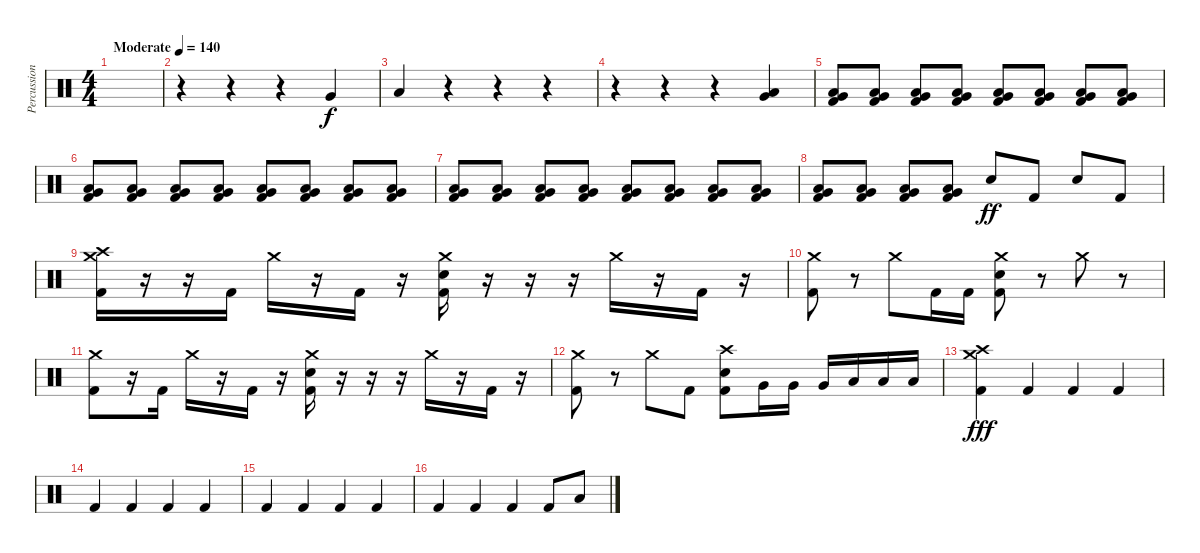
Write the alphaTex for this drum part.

\track ("Percussion" "Percussion") {instrument percussion}
\staff {score}
\articulation defaults
\ts (4 4)
\tempo (140 "Moderate")
\clef neutral
\ks c
|
r.4 r.4 r.4 "Very Low Tom (hit)".4 |
"Low Floor Tom (hit)".4 r.4 r.4 r.4 |
r.4 r.4 r.4 ("Low Floor Tom (hit)" "Very Low Tom (hit)").4 |
("Low Floor Tom (hit)" "Very Low Tom (hit)" "Kick (hit) 2").8{dy f} ("Low Floor Tom (hit)" "Very Low Tom (hit)" "Kick (hit) 2").8 ("Low Floor Tom (hit)" "Very Low Tom (hit)" "Kick (hit) 2").8 ("Low Floor Tom (hit)" "Very Low Tom (hit)" "Kick (hit) 2").8 ("Low Floor Tom (hit)" "Very Low Tom (hit)" "Kick (hit) 2").8 ("Low Floor Tom (hit)" "Very Low Tom (hit)" "Kick (hit) 2").8 ("Low Floor Tom (hit)" "Very Low Tom (hit)" "Kick (hit) 2").8 ("Low Floor Tom (hit)" "Very Low Tom (hit)" "Kick (hit) 2").8 |
("Low Floor Tom (hit)" "Very Low Tom (hit)" "Kick (hit) 2").8 ("Low Floor Tom (hit)" "Very Low Tom (hit)" "Kick (hit) 2").8 ("Low Floor Tom (hit)" "Very Low Tom (hit)" "Kick (hit) 2").8 ("Low Floor Tom (hit)" "Very Low Tom (hit)" "Kick (hit) 2").8 ("Low Floor Tom (hit)" "Very Low Tom (hit)" "Kick (hit) 2").8 ("Low Floor Tom (hit)" "Very Low Tom (hit)" "Kick (hit) 2").8 ("Low Floor Tom (hit)" "Very Low Tom (hit)" "Kick (hit) 2").8 ("Low Floor Tom (hit)" "Very Low Tom (hit)" "Kick (hit) 2").8 |
("Low Floor Tom (hit)" "Very Low Tom (hit)" "Kick (hit) 2").8 ("Low Floor Tom (hit)" "Very Low Tom (hit)" "Kick (hit) 2").8 ("Low Floor Tom (hit)" "Very Low Tom (hit)" "Kick (hit) 2").8 ("Low Floor Tom (hit)" "Very Low Tom (hit)" "Kick (hit) 2").8 ("Low Floor Tom (hit)" "Very Low Tom (hit)" "Kick (hit) 2").8 ("Low Floor Tom (hit)" "Very Low Tom (hit)" "Kick (hit) 2").8 ("Low Floor Tom (hit)" "Very Low Tom (hit)" "Kick (hit) 2").8 ("Low Floor Tom (hit)" "Very Low Tom (hit)" "Kick (hit) 2").8 |
("Low Floor Tom (hit)" "Very Low Tom (hit)" "Kick (hit) 2").8 ("Low Floor Tom (hit)" "Very Low Tom (hit)" "Kick (hit) 2").8 ("Low Floor Tom (hit)" "Very Low Tom (hit)" "Kick (hit) 2").8 ("Low Floor Tom (hit)" "Very Low Tom (hit)" "Kick (hit) 2").8 "Electric Snare (hit)".8{dy ff} "Kick (hit) 2".8 "Electric Snare (hit)".8 "Kick (hit) 2".8 |
("Crash medium (hit)" "Crash high (hit)" "Kick (hit) 2").16 r.16 r.16 "Kick (hit) 2".16 "Crash medium (hit)".16 r.16 "Kick (hit) 2".16 r.16 ("Crash medium (hit)" "Electric Snare (hit)" "Kick (hit) 2").16 r.16 r.16 r.16 "Crash medium (hit)".16 r.16 "Kick (hit) 2".16 r.16 |
("Crash medium (hit)" "Kick (hit) 2").8 r.8 "Crash medium (hit)".8 "Kick (hit) 2".16 "Kick (hit) 2".16 ("Crash medium (hit)" "Electric Snare (hit)" "Kick (hit) 2").8 r.8 "Crash medium (hit)".8 r.8 |
("Crash medium (hit)" "Kick (hit) 2").8 r.16 "Kick (hit) 2".16 "Crash medium (hit)".16 r.16 "Kick (hit) 2".16 r.16 ("Crash medium (hit)" "Electric Snare (hit)" "Kick (hit) 2").16 r.16 r.16 r.16 "Crash medium (hit)".16 r.16 "Kick (hit) 2".16 r.16 |
("Crash medium (hit)" "Kick (hit) 2").8 r.8 "Crash medium (hit)".8 "Kick (hit) 2".8 ("Crash high (hit)" "Electric Snare (hit)" "Kick (hit) 2").8 "Very Low Tom (hit)".16 "Very Low Tom (hit)".16 "Very Low Tom (hit)".16 "Low Floor Tom (hit)".16 "Low Floor Tom (hit)".16 "Low Floor Tom (hit)".16 |
("Crash medium (hit)" "Crash high (hit)" "Kick (hit) 2").4{dy fff} "Kick (hit) 2".4 "Kick (hit) 2".4 "Kick (hit) 2".4 |
"Kick (hit) 2".4 "Kick (hit) 2".4 "Kick (hit) 2".4 "Kick (hit) 2".4 |
"Kick (hit) 2".4 "Kick (hit) 2".4 "Kick (hit) 2".4 "Kick (hit) 2".4 |
"Kick (hit) 2".4 "Kick (hit) 2".4 "Kick (hit) 2".4 "Kick (hit) 2".8 "Low Floor Tom (hit)".8
